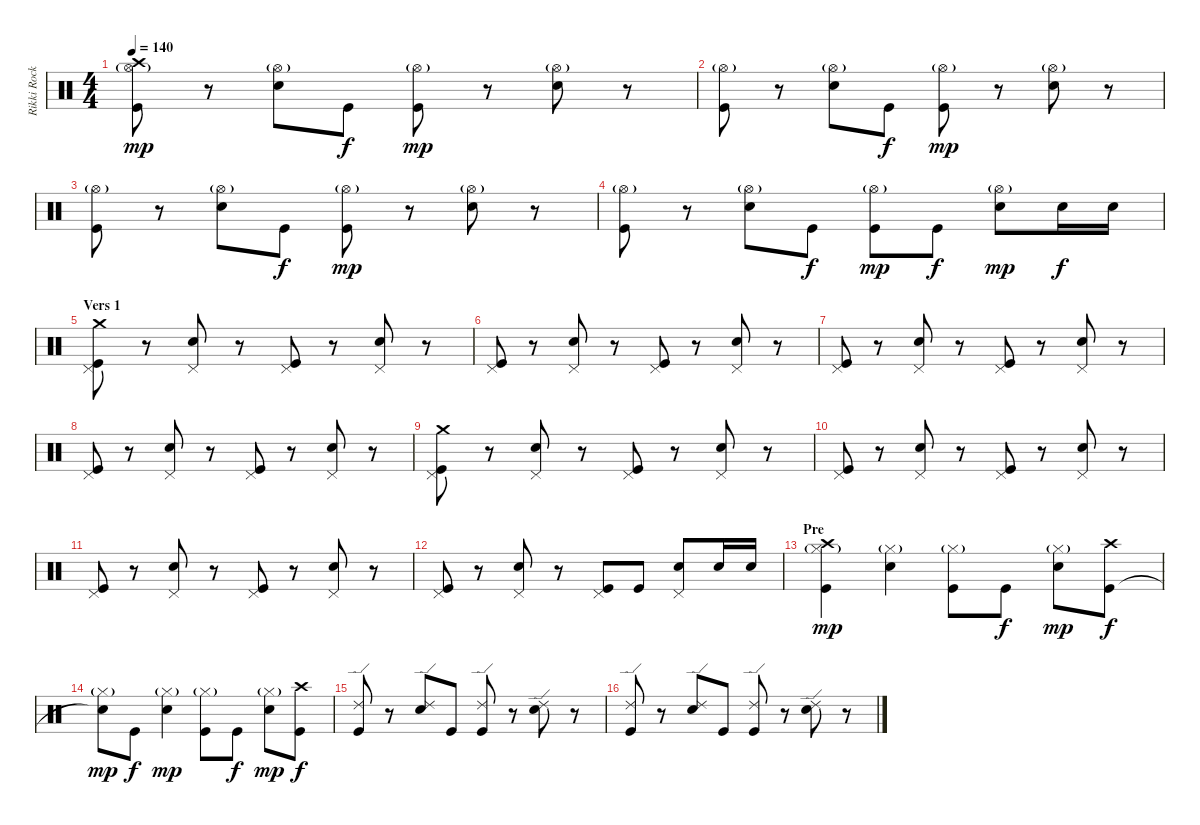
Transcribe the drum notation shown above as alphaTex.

\track ("Rikki Rockett - Drums" "Rikki Rock") {instrument percussion}
\staff {score}
\articulation defaults
\ts (4 4)
\tempo 140
\clef neutral
\ks c
("Hi-Hat (open)"{g} "Crash high (hit)" "Kick (hit)").8{dy mp} r.8 ("Hi-Hat (open)"{g} "Snare (hit) 2").8 "Kick (hit)".8{dy f} ("Hi-Hat (open)"{g} "Kick (hit)").8{dy mp} r.8 ("Hi-Hat (open)"{g} "Snare (hit) 2").8 r.8 |
("Hi-Hat (open)"{g} "Kick (hit)").8 r.8 ("Hi-Hat (open)"{g} "Snare (hit) 2").8 "Kick (hit)".8{dy f} ("Hi-Hat (open)"{g} "Kick (hit)").8{dy mp} r.8 ("Hi-Hat (open)"{g} "Snare (hit) 2").8 r.8 |
("Hi-Hat (open)"{g} "Kick (hit)").8 r.8 ("Hi-Hat (open)"{g} "Snare (hit) 2").8 "Kick (hit)".8{dy f} ("Hi-Hat (open)"{g} "Kick (hit)").8{dy mp} r.8 ("Hi-Hat (open)"{g} "Snare (hit) 2").8 r.8 |
("Hi-Hat (open)"{g} "Kick (hit)").8 r.8 ("Hi-Hat (open)"{g} "Snare (hit) 2").8 "Kick (hit)".8{dy f} ("Hi-Hat (open)"{g} "Kick (hit)").8{dy mp} "Kick (hit)".8{dy f} ("Hi-Hat (open)"{g} "Snare (hit) 2").8{dy mp} "Snare (hit) 2".16{dy f} "Snare (hit) 2".16 |
\section ("" "Vers 1")
("Pedal Hi-Hat (hit)" "Crash medium (hit)" "Kick (hit)").8 r.8 ("Pedal Hi-Hat (hit)" "Snare (hit) 2").8 r.8 ("Pedal Hi-Hat (hit)" "Kick (hit)").8 r.8 ("Pedal Hi-Hat (hit)" "Snare (hit) 2").8 r.8 |
("Pedal Hi-Hat (hit)" "Kick (hit)").8 r.8 ("Pedal Hi-Hat (hit)" "Snare (hit) 2").8 r.8 ("Pedal Hi-Hat (hit)" "Kick (hit)").8 r.8 ("Pedal Hi-Hat (hit)" "Snare (hit) 2").8 r.8 |
("Pedal Hi-Hat (hit)" "Kick (hit)").8 r.8 ("Pedal Hi-Hat (hit)" "Snare (hit) 2").8 r.8 ("Pedal Hi-Hat (hit)" "Kick (hit)").8 r.8 ("Pedal Hi-Hat (hit)" "Snare (hit) 2").8 r.8 |
("Pedal Hi-Hat (hit)" "Kick (hit)").8 r.8 ("Pedal Hi-Hat (hit)" "Snare (hit) 2").8 r.8 ("Pedal Hi-Hat (hit)" "Kick (hit)").8 r.8 ("Pedal Hi-Hat (hit)" "Snare (hit) 2").8 r.8 |
("Pedal Hi-Hat (hit)" "Crash medium (hit)" "Kick (hit)").8 r.8 ("Pedal Hi-Hat (hit)" "Snare (hit) 2").8 r.8 ("Pedal Hi-Hat (hit)" "Kick (hit)").8 r.8 ("Pedal Hi-Hat (hit)" "Snare (hit) 2").8 r.8 |
("Pedal Hi-Hat (hit)" "Kick (hit)").8 r.8 ("Pedal Hi-Hat (hit)" "Snare (hit) 2").8 r.8 ("Pedal Hi-Hat (hit)" "Kick (hit)").8 r.8 ("Pedal Hi-Hat (hit)" "Snare (hit) 2").8 r.8 |
("Pedal Hi-Hat (hit)" "Kick (hit)").8 r.8 ("Pedal Hi-Hat (hit)" "Snare (hit) 2").8 r.8 ("Pedal Hi-Hat (hit)" "Kick (hit)").8 r.8 ("Pedal Hi-Hat (hit)" "Snare (hit) 2").8 r.8 |
("Pedal Hi-Hat (hit)" "Kick (hit)").8 r.8 ("Pedal Hi-Hat (hit)" "Snare (hit) 2").8 r.8 ("Pedal Hi-Hat (hit)" "Kick (hit)").8 "Kick (hit)".8 ("Pedal Hi-Hat (hit)" "Snare (hit) 2").8 "Snare (hit) 2".16 "Snare (hit) 2".16 |
\section ("" "Pre")
("Hi-Hat (closed)"{g} "Crash high (hit)" "Kick (hit)").4{dy mp} ("Hi-Hat (closed)"{g} "Snare (hit) 2").4 ("Hi-Hat (closed)"{g} "Kick (hit)").8 "Kick (hit)".8{dy f} ("Hi-Hat (closed)"{g} "Snare (hit) 2").8{dy mp} ("Crash high (hit)" "Kick (hit)").8{dy f} |
("Hi-Hat (closed)"{g} "Snare (hit)"{t}).8{dy mp} "Kick (hit)".8{dy f} ("Hi-Hat (closed)"{g} "Snare (hit) 2").4{dy mp} ("Hi-Hat (closed)"{g} "Kick (hit)").8 "Kick (hit)".8{dy f} ("Hi-Hat (closed)"{g} "Snare (hit) 2").8{dy mp} ("Crash high (hit)" "Kick (hit)").8{dy f} |
("Ride (edge) 2" "Kick (hit)").8 r.8 ("Ride (edge) 2" "Snare (hit) 2").8 "Kick (hit)".8 ("Ride (edge) 2" "Kick (hit)").8 r.8 ("Ride (edge) 2" "Snare (hit) 2").8 r.8 |
("Ride (edge) 2" "Kick (hit)").8 r.8 ("Ride (edge) 2" "Snare (hit) 2").8 "Kick (hit)".8 ("Ride (edge) 2" "Kick (hit)").8 r.8 ("Ride (edge) 2" "Snare (hit) 2").8 r.8
